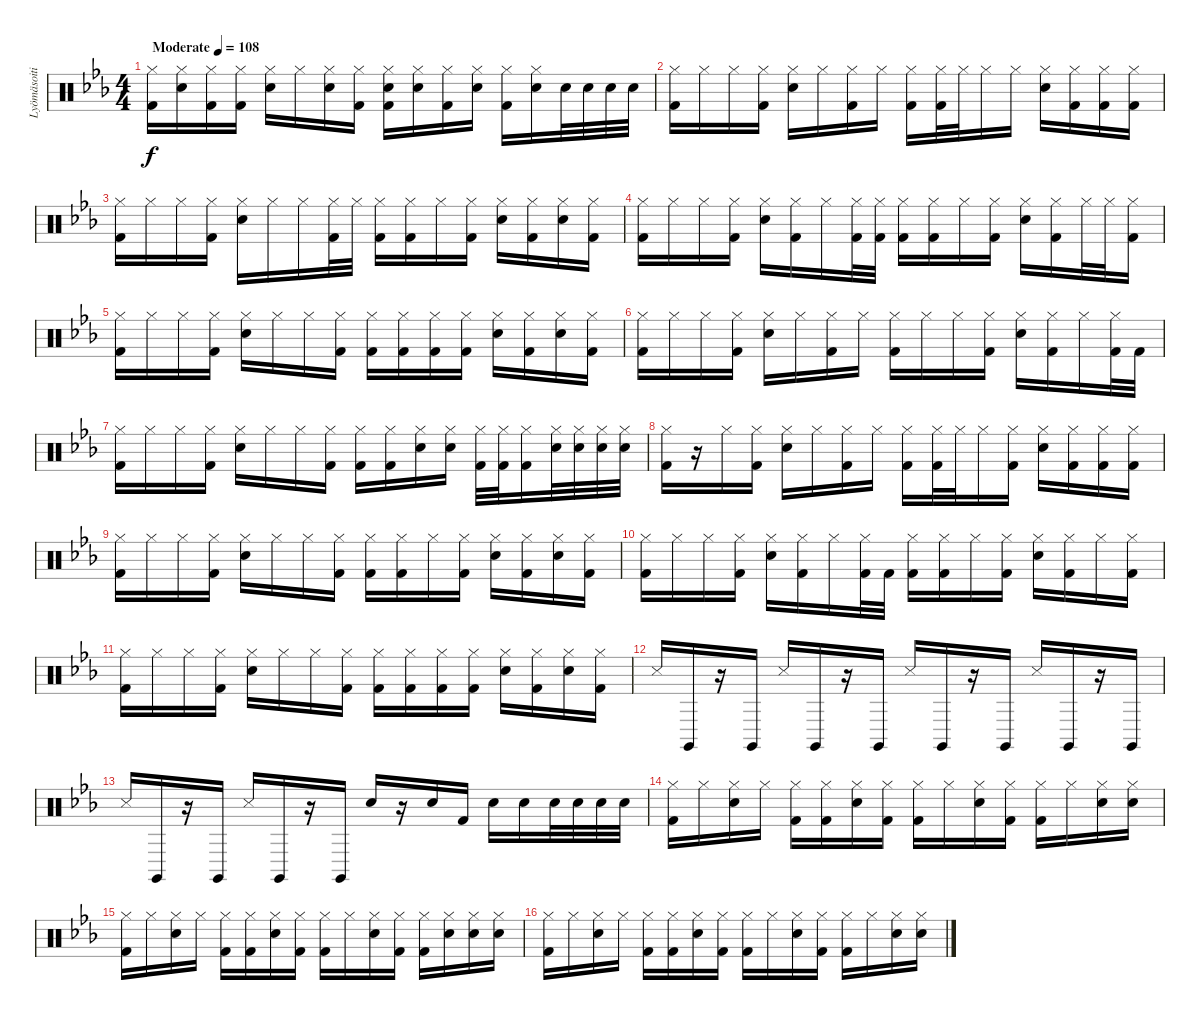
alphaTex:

\track ("Lyömäsoitin" "Lyömäsoiti") {instrument percussion}
\staff {score}
\articulation defaults
\ts (4 4)
\tempo (108 "Moderate")
\clef neutral
\ks cminor
("Hi-Hat (closed)" "Kick (hit) 2").16{dy f} ("Hi-Hat (closed)" "Electric Snare (hit)").16 ("Hi-Hat (closed)" "Kick (hit) 2").16 ("Hi-Hat (closed)" "Kick (hit) 2").16 ("Hi-Hat (closed)" "Electric Snare (hit)").16 "Hi-Hat (closed)".16 ("Hi-Hat (closed)" "Electric Snare (hit)").16 ("Hi-Hat (closed)" "Kick (hit) 2").16 ("Hi-Hat (closed)" "Electric Snare (hit)" "Kick (hit) 2").16 ("Hi-Hat (closed)" "Electric Snare (hit)").16 ("Hi-Hat (closed)" "Kick (hit) 2").16 ("Hi-Hat (closed)" "Electric Snare (hit)").16 ("Hi-Hat (closed)" "Kick (hit) 2").16 ("Hi-Hat (closed)" "Electric Snare (hit)").16 "Electric Snare (hit)".32 "Electric Snare (hit)".32 "Electric Snare (hit)".32 "Electric Snare (hit)".32 |
("Hi-Hat (closed)" "Kick (hit) 2").16 "Hi-Hat (closed)".16 "Hi-Hat (closed)".16 ("Hi-Hat (closed)" "Kick (hit) 2").16 ("Hi-Hat (closed)" "Electric Snare (hit)").16 "Hi-Hat (closed)".16 ("Hi-Hat (closed)" "Kick (hit) 2").16 "Hi-Hat (closed)".16 ("Hi-Hat (closed)" "Kick (hit) 2").16 ("Hi-Hat (closed)" "Kick (hit) 2").32 "Hi-Hat (closed)".32 "Hi-Hat (closed)".16 "Hi-Hat (closed)".16 ("Hi-Hat (closed)" "Electric Snare (hit)").16 ("Hi-Hat (closed)" "Kick (hit) 2").16 ("Hi-Hat (closed)" "Kick (hit) 2").16 ("Hi-Hat (closed)" "Kick (hit) 2").16 |
("Hi-Hat (closed)" "Kick (hit) 2").16 "Hi-Hat (closed)".16 "Hi-Hat (closed)".16 ("Hi-Hat (closed)" "Kick (hit) 2").16 ("Hi-Hat (closed)" "Electric Snare (hit)").16 "Hi-Hat (closed)".16 "Hi-Hat (closed)".16 ("Hi-Hat (closed)" "Kick (hit) 2").32 "Hi-Hat (closed)".32 ("Hi-Hat (closed)" "Kick (hit) 2").16 ("Hi-Hat (closed)" "Kick (hit) 2").16 "Hi-Hat (closed)".16 ("Hi-Hat (closed)" "Kick (hit) 2").16 ("Hi-Hat (closed)" "Electric Snare (hit)").16 ("Hi-Hat (closed)" "Kick (hit) 2").16 ("Hi-Hat (closed)" "Electric Snare (hit)").16 ("Hi-Hat (closed)" "Kick (hit) 2").16 |
("Hi-Hat (closed)" "Kick (hit) 2").16 "Hi-Hat (closed)".16 "Hi-Hat (closed)".16 ("Hi-Hat (closed)" "Kick (hit) 2").16 ("Hi-Hat (closed)" "Electric Snare (hit)").16 ("Hi-Hat (closed)" "Kick (hit) 2").16 "Hi-Hat (closed)".16 ("Hi-Hat (closed)" "Kick (hit) 2").32 ("Hi-Hat (closed)" "Kick (hit) 2").32 ("Hi-Hat (closed)" "Kick (hit) 2").16 ("Hi-Hat (closed)" "Kick (hit) 2").16 "Hi-Hat (closed)".16 ("Hi-Hat (closed)" "Kick (hit) 2").16 ("Hi-Hat (closed)" "Electric Snare (hit)").16 ("Hi-Hat (closed)" "Kick (hit) 2").16 "Hi-Hat (closed)".32 "Hi-Hat (closed)".32 ("Hi-Hat (closed)" "Kick (hit) 2").16 |
("Hi-Hat (closed)" "Kick (hit) 2").16 "Hi-Hat (closed)".16 "Hi-Hat (closed)".16 ("Hi-Hat (closed)" "Kick (hit) 2").16 ("Hi-Hat (closed)" "Electric Snare (hit)").16 "Hi-Hat (closed)".16 "Hi-Hat (closed)".16 ("Hi-Hat (closed)" "Kick (hit) 2").16 ("Hi-Hat (closed)" "Kick (hit) 2").16 ("Hi-Hat (closed)" "Kick (hit) 2").16 ("Hi-Hat (closed)" "Kick (hit) 2").16 ("Hi-Hat (closed)" "Kick (hit) 2").16 ("Hi-Hat (closed)" "Electric Snare (hit)").16 ("Hi-Hat (closed)" "Kick (hit) 2").16 ("Hi-Hat (closed)" "Electric Snare (hit)").16 ("Hi-Hat (closed)" "Kick (hit) 2").16 |
("Hi-Hat (closed)" "Kick (hit) 2").16 "Hi-Hat (closed)".16 "Hi-Hat (closed)".16 ("Hi-Hat (closed)" "Kick (hit) 2").16 ("Hi-Hat (closed)" "Electric Snare (hit)").16 "Hi-Hat (closed)".16 ("Hi-Hat (closed)" "Kick (hit) 2").16 "Hi-Hat (closed)".16 ("Hi-Hat (closed)" "Kick (hit) 2").16 "Hi-Hat (closed)".16 "Hi-Hat (closed)".16 ("Hi-Hat (closed)" "Kick (hit) 2").16 ("Hi-Hat (closed)" "Electric Snare (hit)").16 ("Hi-Hat (closed)" "Kick (hit) 2").16 "Hi-Hat (closed)".16 ("Hi-Hat (closed)" "Kick (hit) 2").32 "Kick (hit) 2".32 |
("Hi-Hat (closed)" "Kick (hit) 2").16 "Hi-Hat (closed)".16 "Hi-Hat (closed)".16 ("Hi-Hat (closed)" "Kick (hit) 2").16 ("Hi-Hat (closed)" "Electric Snare (hit)").16 "Hi-Hat (closed)".16 "Hi-Hat (closed)".16 ("Hi-Hat (closed)" "Kick (hit) 2").16 ("Hi-Hat (closed)" "Kick (hit) 2").16 ("Hi-Hat (closed)" "Kick (hit) 2").16 ("Hi-Hat (closed)" "Electric Snare (hit)").16 ("Hi-Hat (closed)" "Electric Snare (hit)").16 ("Hi-Hat (closed)" "Kick (hit) 2").32 ("Hi-Hat (closed)" "Kick (hit) 2").32 ("Hi-Hat (closed)" "Kick (hit) 2").16 ("Hi-Hat (closed)" "Electric Snare (hit)").32 ("Hi-Hat (closed)" "Electric Snare (hit)").32 ("Hi-Hat (closed)" "Electric Snare (hit)").32 ("Hi-Hat (closed)" "Electric Snare (hit)").32 |
("Hi-Hat (closed)" "Kick (hit) 2").16 r.16 "Hi-Hat (closed)".16 ("Hi-Hat (closed)" "Kick (hit) 2").16 ("Hi-Hat (closed)" "Electric Snare (hit)").16 "Hi-Hat (closed)".16 ("Hi-Hat (closed)" "Kick (hit) 2").16 "Hi-Hat (closed)".16 ("Hi-Hat (closed)" "Kick (hit) 2").16 ("Hi-Hat (closed)" "Kick (hit) 2").32 "Hi-Hat (closed)".32 "Hi-Hat (closed)".16 ("Hi-Hat (closed)" "Kick (hit) 2").16 ("Hi-Hat (closed)" "Electric Snare (hit)").16 ("Hi-Hat (closed)" "Kick (hit) 2").16 ("Hi-Hat (closed)" "Kick (hit) 2").16 ("Hi-Hat (closed)" "Kick (hit) 2").16 |
("Hi-Hat (closed)" "Kick (hit) 2").16 "Hi-Hat (closed)".16 "Hi-Hat (closed)".16 ("Hi-Hat (closed)" "Kick (hit) 2").16 ("Hi-Hat (closed)" "Electric Snare (hit)").16 "Hi-Hat (closed)".16 "Hi-Hat (closed)".16 ("Hi-Hat (closed)" "Kick (hit) 2").16 ("Hi-Hat (closed)" "Kick (hit) 2").16 ("Hi-Hat (closed)" "Kick (hit) 2").16 "Hi-Hat (closed)".16 ("Hi-Hat (closed)" "Kick (hit) 2").16 ("Hi-Hat (closed)" "Electric Snare (hit)").16 ("Hi-Hat (closed)" "Kick (hit) 2").16 ("Hi-Hat (closed)" "Electric Snare (hit)").16 ("Hi-Hat (closed)" "Kick (hit) 2").16 |
("Hi-Hat (closed)" "Kick (hit) 2").16 "Hi-Hat (closed)".16 "Hi-Hat (closed)".16 ("Hi-Hat (closed)" "Kick (hit) 2").16 ("Hi-Hat (closed)" "Electric Snare (hit)").16 ("Hi-Hat (closed)" "Kick (hit) 2").16 "Hi-Hat (closed)".16 ("Hi-Hat (closed)" "Kick (hit) 2").32 "Kick (hit) 2".32 ("Hi-Hat (closed)" "Kick (hit) 2").16 ("Hi-Hat (closed)" "Kick (hit) 2").16 "Hi-Hat (closed)".16 ("Hi-Hat (closed)" "Kick (hit) 2").16 ("Hi-Hat (closed)" "Electric Snare (hit)").16 ("Hi-Hat (closed)" "Kick (hit) 2").16 "Hi-Hat (closed)".16 ("Hi-Hat (closed)" "Kick (hit) 2").16 |
("Hi-Hat (closed)" "Kick (hit) 2").16 "Hi-Hat (closed)".16 "Hi-Hat (closed)".16 ("Hi-Hat (closed)" "Kick (hit) 2").16 ("Hi-Hat (closed)" "Electric Snare (hit)").16 "Hi-Hat (closed)".16 "Hi-Hat (closed)".16 ("Hi-Hat (closed)" "Kick (hit) 2").16 ("Hi-Hat (closed)" "Kick (hit) 2").16 ("Hi-Hat (closed)" "Kick (hit) 2").16 ("Hi-Hat (closed)" "Kick (hit) 2").16 ("Hi-Hat (closed)" "Kick (hit) 2").16 ("Hi-Hat (closed)" "Electric Snare (hit)").16 ("Hi-Hat (closed)" "Kick (hit) 2").16 ("Hi-Hat (closed)" "Electric Snare (hit)").16 ("Hi-Hat (closed)" "Kick (hit) 2").16 |
"Snare (side stick) 3".16 "Claves (hit)".16 r.16 "Claves (hit)".16 "Snare (side stick) 3".16 "Claves (hit)".16 r.16 "Claves (hit)".16 "Snare (side stick) 3".16 "Claves (hit)".16 r.16 "Claves (hit)".16 "Snare (side stick) 3".16 "Claves (hit)".16 r.16 "Claves (hit)".16 |
"Snare (side stick) 3".16 "Claves (hit)".16 r.16 "Claves (hit)".16 "Snare (side stick) 3".16 "Claves (hit)".16 r.16 "Claves (hit)".16 "Electric Snare (hit)".16 r.16 "Electric Snare (hit)".16 "Kick (hit) 2".16 "Electric Snare (hit)".16 "Electric Snare (hit)".16 "Electric Snare (hit)".32 "Electric Snare (hit)".32 "Electric Snare (hit)".32 "Electric Snare (hit)".32 |
("Hi-Hat (closed)" "Kick (hit) 2").16 "Hi-Hat (closed)".16 ("Hi-Hat (closed)" "Electric Snare (hit)").16 "Hi-Hat (closed)".16 ("Hi-Hat (closed)" "Kick (hit) 2").16 ("Hi-Hat (closed)" "Kick (hit) 2").16 ("Hi-Hat (closed)" "Electric Snare (hit)").16 ("Hi-Hat (closed)" "Kick (hit) 2").16 ("Hi-Hat (closed)" "Kick (hit) 2").16 "Hi-Hat (closed)".16 ("Hi-Hat (closed)" "Electric Snare (hit)").16 ("Hi-Hat (closed)" "Kick (hit) 2").16 ("Hi-Hat (closed)" "Kick (hit) 2").16 "Hi-Hat (closed)".16 ("Hi-Hat (closed)" "Electric Snare (hit)").16 ("Hi-Hat (closed)" "Electric Snare (hit)").16 |
("Hi-Hat (closed)" "Kick (hit) 2").16 "Hi-Hat (closed)".16 ("Hi-Hat (closed)" "Electric Snare (hit)").16 "Hi-Hat (closed)".16 ("Hi-Hat (closed)" "Kick (hit) 2").16 ("Hi-Hat (closed)" "Kick (hit) 2").16 ("Hi-Hat (closed)" "Electric Snare (hit)").16 ("Hi-Hat (closed)" "Kick (hit) 2").16 ("Hi-Hat (closed)" "Kick (hit) 2").16 "Hi-Hat (closed)".16 ("Hi-Hat (closed)" "Electric Snare (hit)").16 ("Hi-Hat (closed)" "Kick (hit) 2").16 ("Hi-Hat (closed)" "Kick (hit) 2").16 ("Hi-Hat (closed)" "Electric Snare (hit)").16 ("Hi-Hat (closed)" "Electric Snare (hit)").16 ("Hi-Hat (closed)" "Electric Snare (hit)").16 |
("Hi-Hat (closed)" "Kick (hit) 2").16 "Hi-Hat (closed)".16 ("Hi-Hat (closed)" "Electric Snare (hit)").16 "Hi-Hat (closed)".16 ("Hi-Hat (closed)" "Kick (hit) 2").16 ("Hi-Hat (closed)" "Kick (hit) 2").16 ("Hi-Hat (closed)" "Electric Snare (hit)").16 ("Hi-Hat (closed)" "Kick (hit) 2").16 ("Hi-Hat (closed)" "Kick (hit) 2").16 "Hi-Hat (closed)".16 ("Hi-Hat (closed)" "Electric Snare (hit)").16 ("Hi-Hat (closed)" "Kick (hit) 2").16 ("Hi-Hat (closed)" "Kick (hit) 2").16 "Hi-Hat (closed)".16 ("Hi-Hat (closed)" "Electric Snare (hit)").16 ("Hi-Hat (closed)" "Electric Snare (hit)").16
